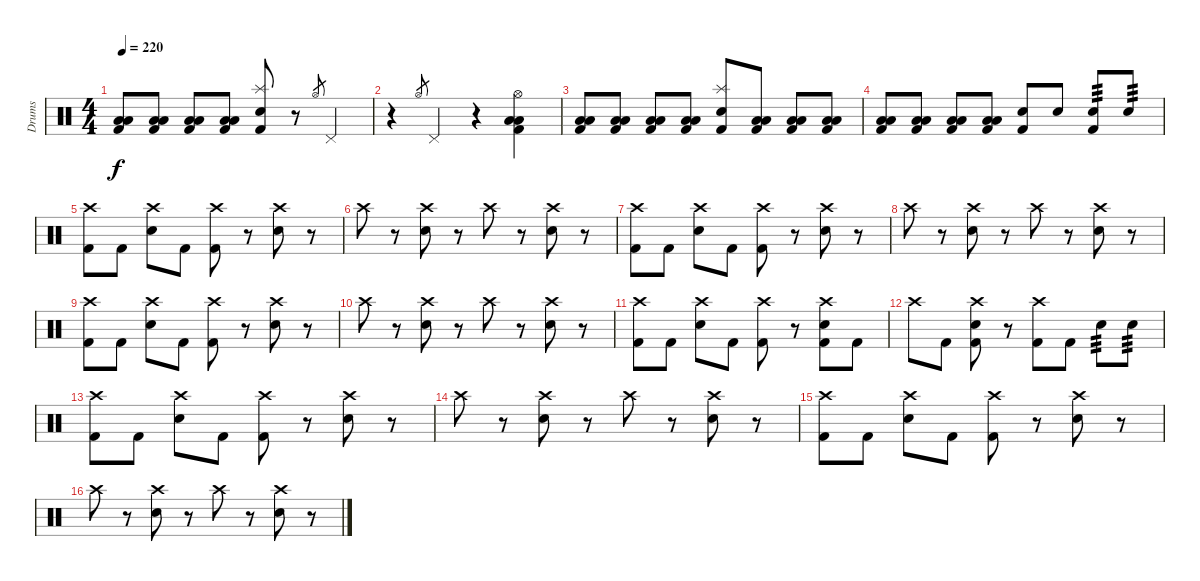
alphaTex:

\track ("Drums" "Drums") {instrument percussion}
\staff {score}
\articulation defaults
\ts (4 4)
\tempo 220
\clef neutral
\ks c
("Low Tom (hit)" "Low Floor Tom (hit)" "Kick (hit) 2").8{dy f} ("Low Tom (hit)" "Low Floor Tom (hit)" "Kick (hit) 2").8 ("Low Tom (hit)" "Low Floor Tom (hit)" "Kick (hit) 2").8 ("Low Tom (hit)" "Low Floor Tom (hit)" "Kick (hit) 2").8 ("Splash (hit)" "Electric Snare (hit)" "Kick (hit) 2").8 r.8 "Hi-Hat (open)".8{gr} "Pedal Hi-Hat (hit)".4 |
r.4 "Hi-Hat (open)".8{gr} "Pedal Hi-Hat (hit)".4 r.4 ("Hi-Hat (open)" "Low Tom (hit)" "Low Floor Tom (hit)" "Kick (hit) 2").4 |
("Low Tom (hit)" "Low Floor Tom (hit)" "Kick (hit) 2").8 ("Low Tom (hit)" "Low Floor Tom (hit)" "Kick (hit) 2").8 ("Low Tom (hit)" "Low Floor Tom (hit)" "Kick (hit) 2").8 ("Low Tom (hit)" "Low Floor Tom (hit)" "Kick (hit) 2").8 ("Splash (hit)" "Electric Snare (hit)" "Kick (hit) 2").8 ("Low Tom (hit)" "Low Floor Tom (hit)" "Kick (hit) 2").8 ("Low Tom (hit)" "Low Floor Tom (hit)" "Kick (hit) 2").8 ("Low Tom (hit)" "Low Floor Tom (hit)" "Kick (hit) 2").8 |
("Low Tom (hit)" "Low Floor Tom (hit)" "Kick (hit) 2").8 ("Low Tom (hit)" "Low Floor Tom (hit)" "Kick (hit) 2").8 ("Low Tom (hit)" "Low Floor Tom (hit)" "Kick (hit) 2").8 ("Low Tom (hit)" "Low Floor Tom (hit)" "Kick (hit) 2").8 ("Electric Snare (hit)" "Kick (hit) 2").8 "Electric Snare (hit)".8 ("Electric Snare (hit)" "Kick (hit) 2").8{tp 3} "Electric Snare (hit)".8{tp 3} |
("Crash high (hit)" "Kick (hit) 2").8 "Kick (hit) 2".8 ("Crash high (hit)" "Electric Snare (hit)").8 "Kick (hit) 2".8 ("Crash high (hit)" "Kick (hit) 2").8 r.8 ("Crash high (hit)" "Electric Snare (hit)").8 r.8 |
"Crash high (hit)".8 r.8 ("Crash high (hit)" "Electric Snare (hit)").8 r.8 "Crash high (hit)".8 r.8 ("Crash high (hit)" "Electric Snare (hit)").8 r.8 |
("Crash high (hit)" "Kick (hit) 2").8 "Kick (hit) 2".8 ("Crash high (hit)" "Electric Snare (hit)").8 "Kick (hit) 2".8 ("Crash high (hit)" "Kick (hit) 2").8 r.8 ("Crash high (hit)" "Electric Snare (hit)").8 r.8 |
"Crash high (hit)".8 r.8 ("Crash high (hit)" "Electric Snare (hit)").8 r.8 "Crash high (hit)".8 r.8 ("Crash high (hit)" "Electric Snare (hit)").8 r.8 |
("Crash high (hit)" "Kick (hit) 2").8 "Kick (hit) 2".8 ("Crash high (hit)" "Electric Snare (hit)").8 "Kick (hit) 2".8 ("Crash high (hit)" "Kick (hit) 2").8 r.8 ("Crash high (hit)" "Electric Snare (hit)").8 r.8 |
"Crash high (hit)".8 r.8 ("Crash high (hit)" "Electric Snare (hit)").8 r.8 "Crash high (hit)".8 r.8 ("Crash high (hit)" "Electric Snare (hit)").8 r.8 |
("Crash high (hit)" "Kick (hit) 2").8 "Kick (hit) 2".8 ("Crash high (hit)" "Electric Snare (hit)").8 "Kick (hit) 2".8 ("Crash high (hit)" "Kick (hit) 2").8 r.8 ("Crash high (hit)" "Electric Snare (hit)" "Kick (hit) 2").8 "Kick (hit) 2".8 |
"Crash high (hit)".8 "Kick (hit) 2".8 ("Crash high (hit)" "Electric Snare (hit)" "Kick (hit) 2").8 r.8 ("Crash high (hit)" "Kick (hit) 2").8 "Kick (hit) 2".8 "Electric Snare (hit)".8{tp 3} "Electric Snare (hit)".8{tp 3} |
("Crash high (hit)" "Kick (hit) 2").8 "Kick (hit) 2".8 ("Crash high (hit)" "Electric Snare (hit)").8 "Kick (hit) 2".8 ("Crash high (hit)" "Kick (hit) 2").8 r.8 ("Crash high (hit)" "Electric Snare (hit)").8 r.8 |
"Crash high (hit)".8 r.8 ("Crash high (hit)" "Electric Snare (hit)").8 r.8 "Crash high (hit)".8 r.8 ("Crash high (hit)" "Electric Snare (hit)").8 r.8 |
("Crash high (hit)" "Kick (hit) 2").8 "Kick (hit) 2".8 ("Crash high (hit)" "Electric Snare (hit)").8 "Kick (hit) 2".8 ("Crash high (hit)" "Kick (hit) 2").8 r.8 ("Crash high (hit)" "Electric Snare (hit)").8 r.8 |
"Crash high (hit)".8 r.8 ("Crash high (hit)" "Electric Snare (hit)").8 r.8 "Crash high (hit)".8 r.8 ("Crash high (hit)" "Electric Snare (hit)").8 r.8
